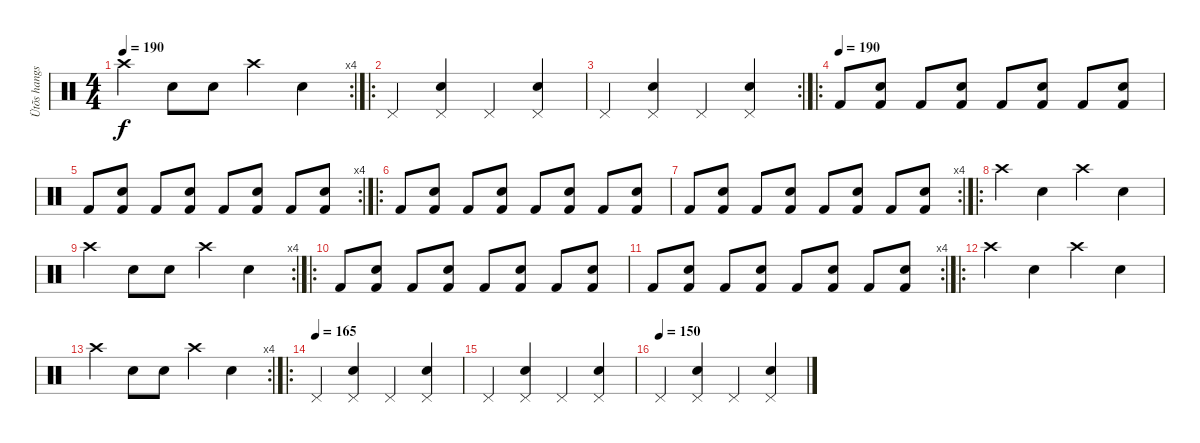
\track ("Ütõs hangszer" "Ütõs hangs") {instrument percussion}
\staff {score}
\articulation defaults
\rc 4
\ts (4 4)
\tempo 190
\clef neutral
\ks c "Crash high (hit)".4{dy f} "Snare (hit) 2".8 "Snare (hit) 2".8 "Crash high (hit)".4 "Snare (hit) 2".4
|
\ro "Pedal Hi-Hat (hit)".4
("Pedal Hi-Hat (hit)" "Snare (hit) 2").4 "Pedal Hi-Hat (hit)".4 ("Pedal Hi-Hat (hit)" "Snare (hit) 2").4 |
\rc 2 "Pedal Hi-Hat (hit)".4
("Pedal Hi-Hat (hit)" "Snare (hit) 2").4 "Pedal Hi-Hat (hit)".4 ("Pedal Hi-Hat (hit)" "Snare (hit) 2").4 |
\ro
\tempo (190)
"Kick (hit) 2".8 ("Kick (hit) 2" "Snare (hit) 2").8 "Kick (hit) 2".8 ("Snare (hit) 2" "Kick (hit) 2").8 "Kick (hit) 2".8 ("Snare (hit) 2" "Kick (hit) 2").8 "Kick (hit) 2".8 ("Kick (hit) 2" "Snare (hit) 2").8 |
\rc 4 "Kick (hit) 2".8
("Kick (hit) 2" "Snare (hit) 2").8 "Kick (hit) 2".8 ("Kick (hit) 2" "Snare (hit) 2").8 "Kick (hit) 2".8 ("Snare (hit) 2" "Kick (hit) 2").8 "Kick (hit) 2".8 ("Kick (hit) 2" "Snare (hit) 2").8 |
\ro "Kick (hit) 2".8
("Kick (hit) 2" "Snare (hit) 2").8 "Kick (hit) 2".8 ("Snare (hit) 2" "Kick (hit) 2").8 "Kick (hit) 2".8 ("Snare (hit) 2" "Kick (hit) 2").8 "Kick (hit) 2".8 ("Kick (hit) 2" "Snare (hit) 2").8 |
\rc 4 "Kick (hit) 2".8
("Kick (hit) 2" "Snare (hit) 2").8 "Kick (hit) 2".8 ("Kick (hit) 2" "Snare (hit) 2").8 "Kick (hit) 2".8 ("Snare (hit) 2" "Kick (hit) 2").8 "Kick (hit) 2".8 ("Kick (hit) 2" "Snare (hit) 2").8 |
\ro "Crash high (hit)".4 "Snare (hit) 2".4 "Crash high (hit)".4 "Snare (hit) 2".4
|
\rc 4 "Crash high (hit)".4 "Snare (hit) 2".8 "Snare (hit) 2".8 "Crash high (hit)".4 "Snare (hit) 2".4
|
\ro "Kick (hit) 2".8
("Kick (hit) 2" "Snare (hit) 2").8 "Kick (hit) 2".8 ("Snare (hit) 2" "Kick (hit) 2").8 "Kick (hit) 2".8 ("Snare (hit) 2" "Kick (hit) 2").8 "Kick (hit) 2".8 ("Kick (hit) 2" "Snare (hit) 2").8 |
\rc 4 "Kick (hit) 2".8
("Kick (hit) 2" "Snare (hit) 2").8 "Kick (hit) 2".8 ("Kick (hit) 2" "Snare (hit) 2").8 "Kick (hit) 2".8 ("Snare (hit) 2" "Kick (hit) 2").8 "Kick (hit) 2".8 ("Kick (hit) 2" "Snare (hit) 2").8 |
\ro "Crash high (hit)".4 "Snare (hit) 2".4 "Crash high (hit)".4 "Snare (hit) 2".4
|
\rc 4 "Crash high (hit)".4 "Snare (hit) 2".8 "Snare (hit) 2".8 "Crash high (hit)".4 "Snare (hit) 2".4
|
\ro
\tempo (165)
"Pedal Hi-Hat (hit)".4 ("Pedal Hi-Hat (hit)" "Snare (hit) 2").4 "Pedal Hi-Hat (hit)".4 ("Pedal Hi-Hat (hit)" "Snare (hit) 2").4 |
"Pedal Hi-Hat (hit)".4 ("Pedal Hi-Hat (hit)" "Snare (hit) 2").4 "Pedal Hi-Hat (hit)".4 ("Pedal Hi-Hat (hit)" "Snare (hit) 2").4 |
\tempo (150)
"Pedal Hi-Hat (hit)".4 ("Pedal Hi-Hat (hit)" "Snare (hit) 2").4 "Pedal Hi-Hat (hit)".4 ("Pedal Hi-Hat (hit)" "Snare (hit) 2").4
